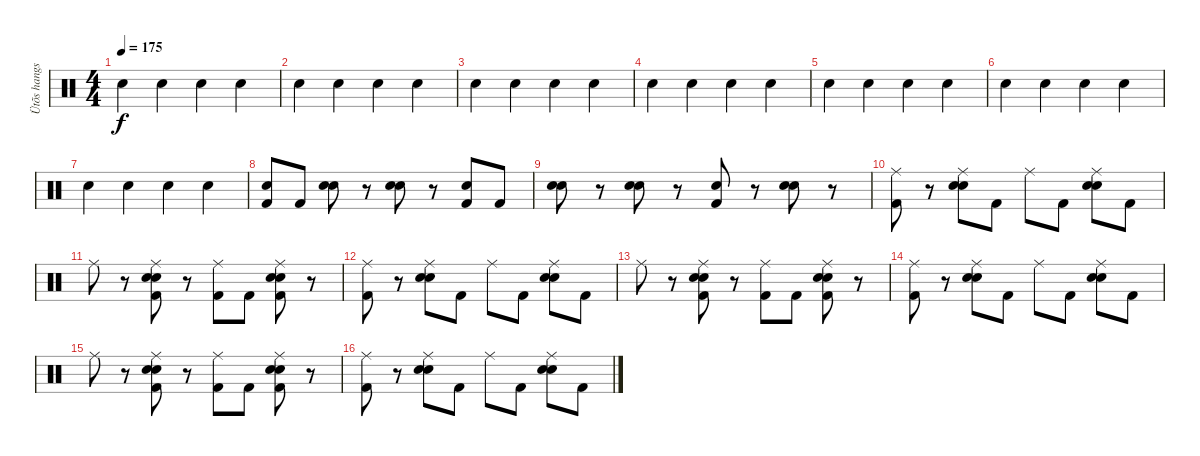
\track ("Ütõs hangszer" "Ütõs hangs") {instrument percussion}
\staff {score}
\articulation defaults
\ts (4 4)
\tempo 175
\clef neutral
\ks c "Hand Clap (hit)".4{dy f} "Hand Clap (hit)".4 "Hand Clap (hit)".4 "Hand Clap (hit)".4
|
"Hand Clap (hit)".4 "Hand Clap (hit)".4 "Hand Clap (hit)".4 "Hand Clap (hit)".4 |
"Hand Clap (hit)".4 "Hand Clap (hit)".4 "Hand Clap (hit)".4 "Hand Clap (hit)".4 |
"Hand Clap (hit)".4 "Hand Clap (hit)".4 "Hand Clap (hit)".4 "Hand Clap (hit)".4 |
"Hand Clap (hit)".4 "Hand Clap (hit)".4 "Hand Clap (hit)".4 "Hand Clap (hit)".4 |
"Hand Clap (hit)".4 "Hand Clap (hit)".4 "Hand Clap (hit)".4 "Hand Clap (hit)".4 |
"Hand Clap (hit)".4 "Hand Clap (hit)".4 "Hand Clap (hit)".4 "Hand Clap (hit)".4 |
("Hand Clap (hit)" "Kick (hit) 2").8 "Kick (hit) 2".8 ("Snare (hit) 2" "Hand Clap (hit)").8 r.8 ("Snare (hit) 2" "Hand Clap (hit)").8 r.8 ("Hand Clap (hit)" "Kick (hit) 2").8 "Kick (hit) 2".8 |
("Snare (hit) 2" "Hand Clap (hit)").8 r.8 ("Snare (hit) 2" "Hand Clap (hit)").8 r.8 ("Hand Clap (hit)" "Kick (hit) 2").8 r.8 ("Snare (hit) 2" "Hand Clap (hit)").8 r.8 |
("Ride (middle)" "Kick (hit) 2").8 r.8 ("Hand Clap (hit)" "Ride (middle)" "Snare (hit) 2").8 "Kick (hit) 2".8 "Ride (middle)".8 "Kick (hit) 2".8 ("Hand Clap (hit)" "Ride (middle)" "Snare (hit) 2").8 "Kick (hit) 2".8 |
"Ride (middle)".8 r.8 ("Hand Clap (hit)" "Ride (middle)" "Snare (hit) 2" "Kick (hit) 2").8 r.8 ("Ride (middle)" "Kick (hit) 2").8 "Kick (hit) 2".8 ("Hand Clap (hit)" "Ride (middle)" "Snare (hit) 2" "Kick (hit) 2").8 r.8 |
("Ride (middle)" "Kick (hit) 2").8 r.8 ("Hand Clap (hit)" "Ride (middle)" "Snare (hit) 2").8 "Kick (hit) 2".8 "Ride (middle)".8 "Kick (hit) 2".8 ("Hand Clap (hit)" "Ride (middle)" "Snare (hit) 2").8 "Kick (hit) 2".8 |
"Ride (middle)".8 r.8 ("Hand Clap (hit)" "Ride (middle)" "Snare (hit) 2" "Kick (hit) 2").8 r.8 ("Ride (middle)" "Kick (hit) 2").8 "Kick (hit) 2".8 ("Hand Clap (hit)" "Ride (middle)" "Snare (hit) 2" "Kick (hit) 2").8 r.8 |
("Ride (middle)" "Kick (hit) 2").8 r.8 ("Hand Clap (hit)" "Ride (middle)" "Snare (hit) 2").8 "Kick (hit) 2".8 "Ride (middle)".8 "Kick (hit) 2".8 ("Hand Clap (hit)" "Ride (middle)" "Snare (hit) 2").8 "Kick (hit) 2".8 |
"Ride (middle)".8 r.8 ("Hand Clap (hit)" "Ride (middle)" "Snare (hit) 2" "Kick (hit) 2").8 r.8 ("Ride (middle)" "Kick (hit) 2").8 "Kick (hit) 2".8 ("Hand Clap (hit)" "Ride (middle)" "Snare (hit) 2" "Kick (hit) 2").8 r.8 |
("Ride (middle)" "Kick (hit) 2").8 r.8 ("Hand Clap (hit)" "Ride (middle)" "Snare (hit) 2").8 "Kick (hit) 2".8 "Ride (middle)".8 "Kick (hit) 2".8 ("Hand Clap (hit)" "Ride (middle)" "Snare (hit) 2").8 "Kick (hit) 2".8
